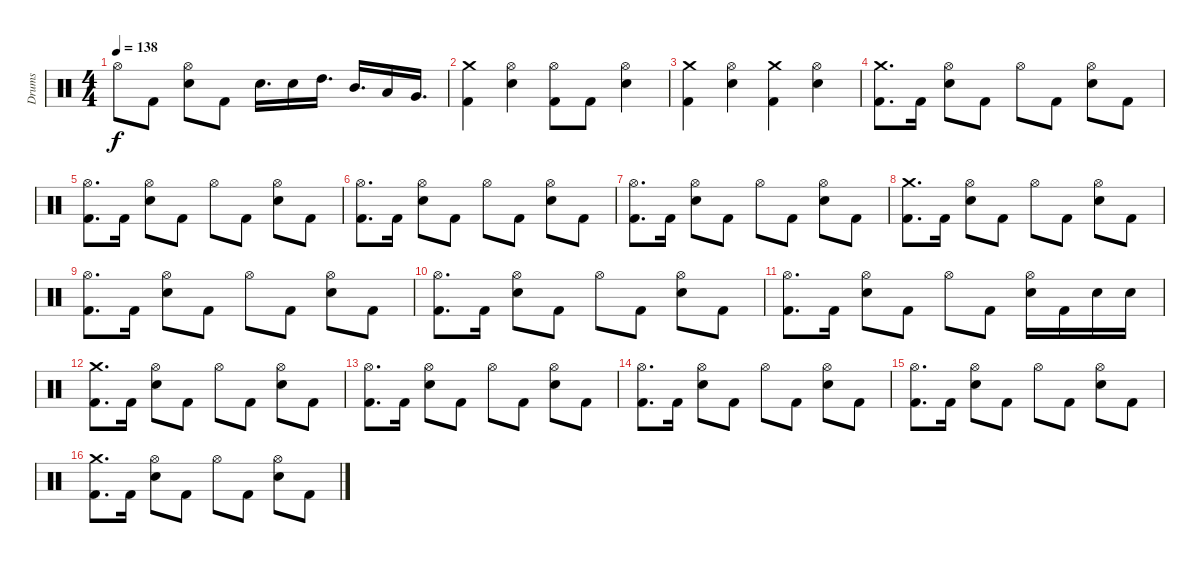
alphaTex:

\track ("Drums" "Drums") {instrument percussion}
\staff {score}
\articulation defaults
\ts (4 4)
\tempo 138
\clef neutral
\ks c "Hi-Hat (open)".8{dy f} "Kick (hit) 2".8
("Hi-Hat (open)" "Electric Snare (hit)").8 "Kick (hit) 2".8 "Electric Snare (hit)".16{d} "Electric Snare (hit)".16 "High Tom (hit)".16{d} "Mid Tom (hit)".16{d} "Low Tom (hit)".16 "Very Low Tom (hit)".16{d} |
("Crash medium (hit)" "Kick (hit) 2").4 ("Hi-Hat (open)" "Electric Snare (hit)").4 ("Hi-Hat (open)" "Kick (hit) 2").8 "Kick (hit) 2".8 ("Hi-Hat (open)" "Electric Snare (hit)").4 |
("Crash medium (hit)" "Kick (hit) 2").4 ("Hi-Hat (open)" "Electric Snare (hit)").4 ("Crash medium (hit)" "Kick (hit) 2").4 ("Hi-Hat (open)" "Electric Snare (hit)").4 |
("Crash medium (hit)" "Kick (hit) 2").8{d} "Kick (hit) 2".16 ("Hi-Hat (open)" "Electric Snare (hit)").8 "Kick (hit) 2".8 "Hi-Hat (open)".8 "Kick (hit) 2".8 ("Hi-Hat (open)" "Electric Snare (hit)").8 "Kick (hit) 2".8 |
("Hi-Hat (open)" "Kick (hit) 2").8{d} "Kick (hit) 2".16 ("Hi-Hat (open)" "Electric Snare (hit)").8 "Kick (hit) 2".8 "Hi-Hat (open)".8 "Kick (hit) 2".8 ("Hi-Hat (open)" "Electric Snare (hit)").8 "Kick (hit) 2".8 |
("Hi-Hat (open)" "Kick (hit) 2").8{d} "Kick (hit) 2".16 ("Hi-Hat (open)" "Electric Snare (hit)").8 "Kick (hit) 2".8 "Hi-Hat (open)".8 "Kick (hit) 2".8 ("Hi-Hat (open)" "Electric Snare (hit)").8 "Kick (hit) 2".8 |
("Hi-Hat (open)" "Kick (hit) 2").8{d} "Kick (hit) 2".16 ("Hi-Hat (open)" "Electric Snare (hit)").8 "Kick (hit) 2".8 "Hi-Hat (open)".8 "Kick (hit) 2".8 ("Hi-Hat (open)" "Electric Snare (hit)").8 "Kick (hit) 2".8 |
("Crash medium (hit)" "Kick (hit) 2").8{d} "Kick (hit) 2".16 ("Hi-Hat (open)" "Electric Snare (hit)").8 "Kick (hit) 2".8 "Hi-Hat (open)".8 "Kick (hit) 2".8 ("Hi-Hat (open)" "Electric Snare (hit)").8 "Kick (hit) 2".8 |
("Hi-Hat (open)" "Kick (hit) 2").8{d} "Kick (hit) 2".16 ("Hi-Hat (open)" "Electric Snare (hit)").8 "Kick (hit) 2".8 "Hi-Hat (open)".8 "Kick (hit) 2".8 ("Hi-Hat (open)" "Electric Snare (hit)").8 "Kick (hit) 2".8 |
("Hi-Hat (open)" "Kick (hit) 2").8{d} "Kick (hit) 2".16 ("Hi-Hat (open)" "Electric Snare (hit)").8 "Kick (hit) 2".8 "Hi-Hat (open)".8 "Kick (hit) 2".8 ("Hi-Hat (open)" "Electric Snare (hit)").8 "Kick (hit) 2".8 |
("Hi-Hat (open)" "Kick (hit) 2").8{d} "Kick (hit) 2".16 ("Hi-Hat (open)" "Electric Snare (hit)").8 "Kick (hit) 2".8 "Hi-Hat (open)".8 "Kick (hit) 2".8 ("Hi-Hat (open)" "Electric Snare (hit)").16 "Kick (hit) 2".16 "Electric Snare (hit)".16 "Electric Snare (hit)".16 |
("Crash medium (hit)" "Kick (hit) 2").8{d} "Kick (hit) 2".16 ("Hi-Hat (open)" "Electric Snare (hit)").8 "Kick (hit) 2".8 "Hi-Hat (open)".8 "Kick (hit) 2".8 ("Hi-Hat (open)" "Electric Snare (hit)").8 "Kick (hit) 2".8 |
("Hi-Hat (open)" "Kick (hit) 2").8{d} "Kick (hit) 2".16 ("Hi-Hat (open)" "Electric Snare (hit)").8 "Kick (hit) 2".8 "Hi-Hat (open)".8 "Kick (hit) 2".8 ("Hi-Hat (open)" "Electric Snare (hit)").8 "Kick (hit) 2".8 |
("Hi-Hat (open)" "Kick (hit) 2").8{d} "Kick (hit) 2".16 ("Hi-Hat (open)" "Electric Snare (hit)").8 "Kick (hit) 2".8 "Hi-Hat (open)".8 "Kick (hit) 2".8 ("Hi-Hat (open)" "Electric Snare (hit)").8 "Kick (hit) 2".8 |
("Hi-Hat (open)" "Kick (hit) 2").8{d} "Kick (hit) 2".16 ("Hi-Hat (open)" "Electric Snare (hit)").8 "Kick (hit) 2".8 "Hi-Hat (open)".8 "Kick (hit) 2".8 ("Hi-Hat (open)" "Electric Snare (hit)").8 "Kick (hit) 2".8 |
("Crash medium (hit)" "Kick (hit) 2").8{d} "Kick (hit) 2".16 ("Hi-Hat (open)" "Electric Snare (hit)").8 "Kick (hit) 2".8 "Hi-Hat (open)".8 "Kick (hit) 2".8 ("Hi-Hat (open)" "Electric Snare (hit)").8 "Kick (hit) 2".8
